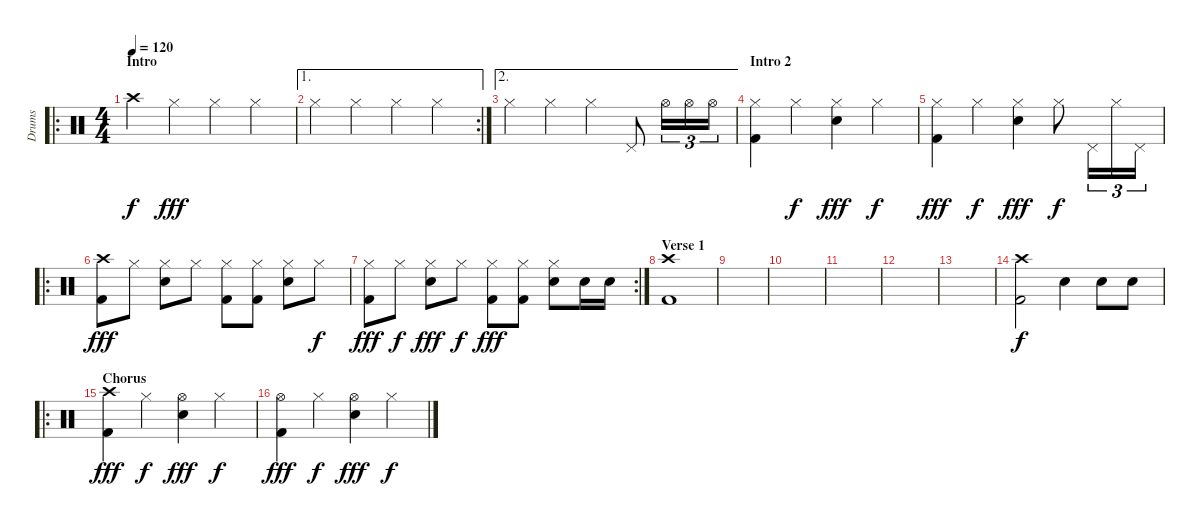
\track ("Drums" "Drums") {instrument percussion}
\staff {score}
\articulation defaults
\ro
\ts (4 4)
\section ("" "Intro")
\tempo 120
\clef neutral
\ks c "Crash high (hit)".4{dy f} "Hi-Hat (closed)".4{dy fff} "Hi-Hat (closed)".4 "Hi-Hat (closed)".4
|
\ae 1
\rc 2 "Hi-Hat (closed)".4 "Hi-Hat (closed)".4 "Hi-Hat (closed)".4 "Hi-Hat (closed)".4
|
\ae 2 "Hi-Hat (closed)".4 "Hi-Hat (closed)".4 "Hi-Hat (closed)".4 "Pedal Hi-Hat (hit)".8 "Hi-Hat (open)".16{tu (3 2)} "Hi-Hat (open)".16{tu (3 2)} "Hi-Hat (open)".16{tu (3 2)}
|
\section ("" "Intro 2")
("Hi-Hat (closed)" "Kick (hit) 2").4 "Hi-Hat (closed)".4{dy f} ("Hi-Hat (closed)" "Electric Snare (hit)").4{dy fff} "Hi-Hat (closed)".4{dy f} |
("Hi-Hat (closed)" "Kick (hit) 2").4{dy fff} "Hi-Hat (closed)".4{dy f} ("Hi-Hat (closed)" "Electric Snare (hit)").4{dy fff} "Hi-Hat (closed)".8{dy f} "Pedal Hi-Hat (hit)".16{tu (3 2)} "Hi-Hat (closed)".16{tu (3 2)} "Pedal Hi-Hat (hit)".16{tu (3 2)} |
\ro
("Crash high (hit)" "Kick (hit) 2").8{dy fff} "Hi-Hat (closed)".8 ("Hi-Hat (closed)" "Electric Snare (hit)").8 "Hi-Hat (closed)".8 ("Hi-Hat (closed)" "Kick (hit) 2").8 ("Hi-Hat (closed)" "Kick (hit) 2").8 ("Hi-Hat (closed)" "Electric Snare (hit)").8 "Hi-Hat (closed)".8{dy f} |
\rc 2
("Hi-Hat (closed)" "Kick (hit) 2").8{dy fff} "Hi-Hat (closed)".8{dy f} ("Hi-Hat (closed)" "Electric Snare (hit)").8{dy fff} "Hi-Hat (closed)".8{dy f} ("Hi-Hat (closed)" "Kick (hit) 2").8{dy fff} ("Hi-Hat (closed)" "Kick (hit) 2").8 ("Hi-Hat (closed)" "Electric Snare (hit)").8 "Electric Snare (hit)".16 "Electric Snare (hit)".16 |
\section ("" "Verse 1")
("Crash high (hit)" "Kick (hit) 2").1 |
|
|
|
|
|
("Crash high (hit)" "Kick (hit) 2").2{dy f} "Electric Snare (hit)".4 "Electric Snare (hit)".8 "Electric Snare (hit)".8 |
\ro
\section ("" "Chorus")
("Crash high (hit)" "Kick (hit) 2").4{dy fff} "Hi-Hat (closed)".4{dy f} ("Hi-Hat (open)" "Electric Snare (hit)").4{dy fff} "Hi-Hat (closed)".4{dy f} |
("Hi-Hat (open)" "Kick (hit) 2").4{dy fff} "Hi-Hat (closed)".4{dy f} ("Hi-Hat (open)" "Electric Snare (hit)").4{dy fff} "Hi-Hat (closed)".4{dy f}
